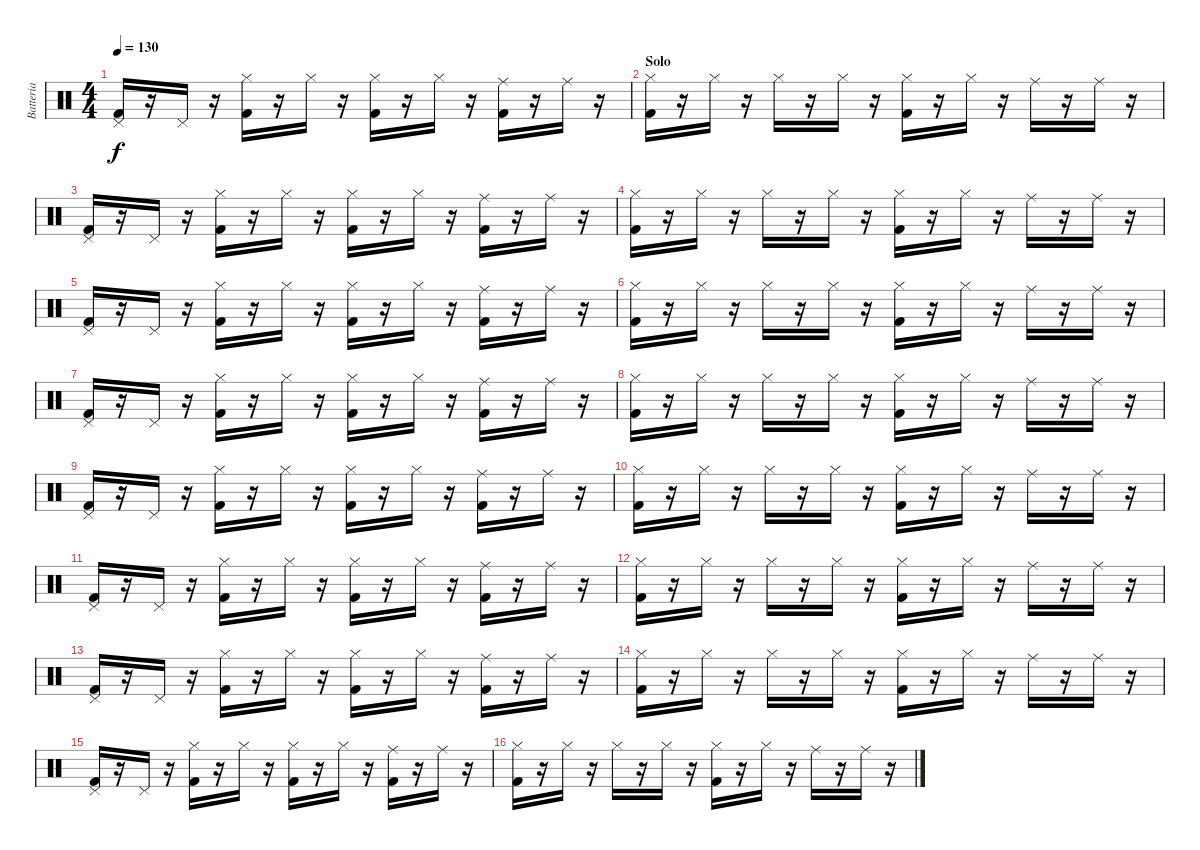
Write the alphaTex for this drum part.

\track ("Batteria" "Batteria") {instrument percussion}
\staff {score}
\articulation defaults
\ts (4 4)
\tempo 130
\clef neutral
\ks c
("Pedal Hi-Hat (hit)" "Kick (hit) 2").16{dy f} r.16 "Pedal Hi-Hat (hit)".16 r.16 ("Hi-Hat (closed)" "Kick (hit) 2").16 r.16 "Hi-Hat (closed)".16 r.16 ("Hi-Hat (closed)" "Kick (hit) 2").16 r.16 "Hi-Hat (closed)".16 r.16 ("Ride (middle)" "Kick (hit) 2").16 r.16 "Ride (middle)".16 r.16 |
\section ("" "Solo")
("Hi-Hat (closed)" "Kick (hit) 2").16 r.16 "Hi-Hat (closed)".16 r.16 "Hi-Hat (closed)".16 r.16 "Hi-Hat (closed)".16 r.16 ("Hi-Hat (closed)" "Kick (hit) 2").16 r.16 "Hi-Hat (closed)".16 r.16 "Ride (middle)".16 r.16 "Ride (middle)".16 r.16 |
("Pedal Hi-Hat (hit)" "Kick (hit) 2").16 r.16 "Pedal Hi-Hat (hit)".16 r.16 ("Hi-Hat (closed)" "Kick (hit) 2").16 r.16 "Hi-Hat (closed)".16 r.16 ("Hi-Hat (closed)" "Kick (hit) 2").16 r.16 "Hi-Hat (closed)".16 r.16 ("Ride (middle)" "Kick (hit) 2").16 r.16 "Ride (middle)".16 r.16 |
("Hi-Hat (closed)" "Kick (hit) 2").16 r.16 "Hi-Hat (closed)".16 r.16 "Hi-Hat (closed)".16 r.16 "Hi-Hat (closed)".16 r.16 ("Hi-Hat (closed)" "Kick (hit) 2").16 r.16 "Hi-Hat (closed)".16 r.16 "Ride (middle)".16 r.16 "Ride (middle)".16 r.16 |
("Pedal Hi-Hat (hit)" "Kick (hit) 2").16 r.16 "Pedal Hi-Hat (hit)".16 r.16 ("Hi-Hat (closed)" "Kick (hit) 2").16 r.16 "Hi-Hat (closed)".16 r.16 ("Hi-Hat (closed)" "Kick (hit) 2").16 r.16 "Hi-Hat (closed)".16 r.16 ("Ride (middle)" "Kick (hit) 2").16 r.16 "Ride (middle)".16 r.16 |
("Hi-Hat (closed)" "Kick (hit) 2").16 r.16 "Hi-Hat (closed)".16 r.16 "Hi-Hat (closed)".16 r.16 "Hi-Hat (closed)".16 r.16 ("Hi-Hat (closed)" "Kick (hit) 2").16 r.16 "Hi-Hat (closed)".16 r.16 "Ride (middle)".16 r.16 "Ride (middle)".16 r.16 |
("Pedal Hi-Hat (hit)" "Kick (hit) 2").16 r.16 "Pedal Hi-Hat (hit)".16 r.16 ("Hi-Hat (closed)" "Kick (hit) 2").16 r.16 "Hi-Hat (closed)".16 r.16 ("Hi-Hat (closed)" "Kick (hit) 2").16 r.16 "Hi-Hat (closed)".16 r.16 ("Ride (middle)" "Kick (hit) 2").16 r.16 "Ride (middle)".16 r.16 |
("Hi-Hat (closed)" "Kick (hit) 2").16 r.16 "Hi-Hat (closed)".16 r.16 "Hi-Hat (closed)".16 r.16 "Hi-Hat (closed)".16 r.16 ("Hi-Hat (closed)" "Kick (hit) 2").16 r.16 "Hi-Hat (closed)".16 r.16 "Ride (middle)".16 r.16 "Ride (middle)".16 r.16 |
("Pedal Hi-Hat (hit)" "Kick (hit) 2").16 r.16 "Pedal Hi-Hat (hit)".16 r.16 ("Hi-Hat (closed)" "Kick (hit) 2").16 r.16 "Hi-Hat (closed)".16 r.16 ("Hi-Hat (closed)" "Kick (hit) 2").16 r.16 "Hi-Hat (closed)".16 r.16 ("Ride (middle)" "Kick (hit) 2").16 r.16 "Ride (middle)".16 r.16 |
("Hi-Hat (closed)" "Kick (hit) 2").16 r.16 "Hi-Hat (closed)".16 r.16 "Hi-Hat (closed)".16 r.16 "Hi-Hat (closed)".16 r.16 ("Hi-Hat (closed)" "Kick (hit) 2").16 r.16 "Hi-Hat (closed)".16 r.16 "Ride (middle)".16 r.16 "Ride (middle)".16 r.16 |
("Pedal Hi-Hat (hit)" "Kick (hit) 2").16 r.16 "Pedal Hi-Hat (hit)".16 r.16 ("Hi-Hat (closed)" "Kick (hit) 2").16 r.16 "Hi-Hat (closed)".16 r.16 ("Hi-Hat (closed)" "Kick (hit) 2").16 r.16 "Hi-Hat (closed)".16 r.16 ("Ride (middle)" "Kick (hit) 2").16 r.16 "Ride (middle)".16 r.16 |
("Hi-Hat (closed)" "Kick (hit) 2").16 r.16 "Hi-Hat (closed)".16 r.16 "Hi-Hat (closed)".16 r.16 "Hi-Hat (closed)".16 r.16 ("Hi-Hat (closed)" "Kick (hit) 2").16 r.16 "Hi-Hat (closed)".16 r.16 "Ride (middle)".16 r.16 "Ride (middle)".16 r.16 |
("Pedal Hi-Hat (hit)" "Kick (hit) 2").16 r.16 "Pedal Hi-Hat (hit)".16 r.16 ("Hi-Hat (closed)" "Kick (hit) 2").16 r.16 "Hi-Hat (closed)".16 r.16 ("Hi-Hat (closed)" "Kick (hit) 2").16 r.16 "Hi-Hat (closed)".16 r.16 ("Ride (middle)" "Kick (hit) 2").16 r.16 "Ride (middle)".16 r.16 |
("Hi-Hat (closed)" "Kick (hit) 2").16 r.16 "Hi-Hat (closed)".16 r.16 "Hi-Hat (closed)".16 r.16 "Hi-Hat (closed)".16 r.16 ("Hi-Hat (closed)" "Kick (hit) 2").16 r.16 "Hi-Hat (closed)".16 r.16 "Ride (middle)".16 r.16 "Ride (middle)".16 r.16 |
("Pedal Hi-Hat (hit)" "Kick (hit) 2").16 r.16 "Pedal Hi-Hat (hit)".16 r.16 ("Hi-Hat (closed)" "Kick (hit) 2").16 r.16 "Hi-Hat (closed)".16 r.16 ("Hi-Hat (closed)" "Kick (hit) 2").16 r.16 "Hi-Hat (closed)".16 r.16 ("Ride (middle)" "Kick (hit) 2").16 r.16 "Ride (middle)".16 r.16 |
("Hi-Hat (closed)" "Kick (hit) 2").16 r.16 "Hi-Hat (closed)".16 r.16 "Hi-Hat (closed)".16 r.16 "Hi-Hat (closed)".16 r.16 ("Hi-Hat (closed)" "Kick (hit) 2").16 r.16 "Hi-Hat (closed)".16 r.16 "Ride (middle)".16 r.16 "Ride (middle)".16 r.16
